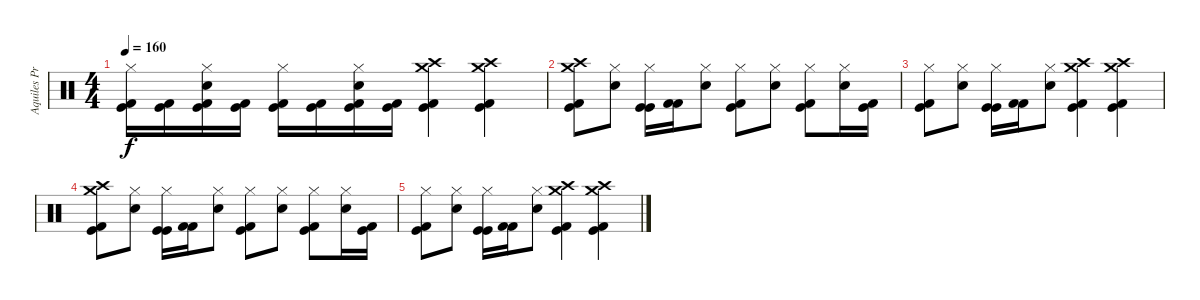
\track ("Aquiles Priester" "Aquiles Pr") {instrument percussion}
\staff {score}
\articulation defaults
\ts (4 4)
\tempo 160
\clef neutral
\ks c
("Hi-Hat (closed)" "Kick (hit) 2" "Kick (hit)").16{dy f} ("Kick (hit) 2" "Kick (hit)").16 ("Hi-Hat (closed)" "Electric Snare (hit)" "Kick (hit) 2" "Kick (hit)").16 ("Kick (hit) 2" "Kick (hit)").16 ("Hi-Hat (closed)" "Kick (hit) 2" "Kick (hit)").16 ("Kick (hit) 2" "Kick (hit)").16 ("Hi-Hat (closed)" "Electric Snare (hit)" "Kick (hit) 2" "Kick (hit)").16 ("Kick (hit) 2" "Kick (hit)").16 ("Crash medium (hit)" "Crash high (hit)" "Kick (hit) 2" "Kick (hit)").4 ("Crash medium (hit)" "Crash high (hit)" "Kick (hit)" "Kick (hit) 2").4 |
("Crash medium (hit)" "Crash high (hit)" "Kick (hit) 2" "Kick (hit)").8 ("Hi-Hat (closed)" "Electric Snare (hit)").8 ("Hi-Hat (closed)" "Kick (hit)" "Kick (hit)").16 ("Kick (hit) 2" "Kick (hit) 2").16 ("Hi-Hat (closed)" "Electric Snare (hit)").8 ("Hi-Hat (closed)" "Kick (hit) 2" "Kick (hit)").8 ("Hi-Hat (closed)" "Electric Snare (hit)").8 ("Hi-Hat (closed)" "Kick (hit) 2" "Kick (hit)").8 ("Hi-Hat (closed)" "Electric Snare (hit)").16 ("Kick (hit)" "Kick (hit) 2").16 |
("Hi-Hat (closed)" "Kick (hit) 2" "Kick (hit)").8 ("Hi-Hat (closed)" "Electric Snare (hit)").8 ("Hi-Hat (closed)" "Kick (hit)" "Kick (hit)").16 ("Kick (hit) 2" "Kick (hit) 2").16 ("Hi-Hat (closed)" "Electric Snare (hit)").8 ("Crash medium (hit)" "Crash high (hit)" "Kick (hit) 2" "Kick (hit)").4 ("Crash medium (hit)" "Crash high (hit)" "Kick (hit)" "Kick (hit) 2").4 |
("Crash medium (hit)" "Crash high (hit)" "Kick (hit) 2" "Kick (hit)").8 ("Hi-Hat (closed)" "Electric Snare (hit)").8 ("Hi-Hat (closed)" "Kick (hit)" "Kick (hit)").16 ("Kick (hit) 2" "Kick (hit) 2").16 ("Hi-Hat (closed)" "Electric Snare (hit)").8 ("Hi-Hat (closed)" "Kick (hit) 2" "Kick (hit)").8 ("Hi-Hat (closed)" "Electric Snare (hit)").8 ("Hi-Hat (closed)" "Kick (hit) 2" "Kick (hit)").8 ("Hi-Hat (closed)" "Electric Snare (hit)").16 ("Kick (hit)" "Kick (hit) 2").16 |
("Hi-Hat (closed)" "Kick (hit) 2" "Kick (hit)").8 ("Hi-Hat (closed)" "Electric Snare (hit)").8 ("Hi-Hat (closed)" "Kick (hit)" "Kick (hit)").16 ("Kick (hit) 2" "Kick (hit) 2").16 ("Hi-Hat (closed)" "Electric Snare (hit)").8 ("Crash medium (hit)" "Crash high (hit)" "Kick (hit) 2" "Kick (hit)").4 ("Crash medium (hit)" "Crash high (hit)" "Kick (hit)" "Kick (hit) 2").4
